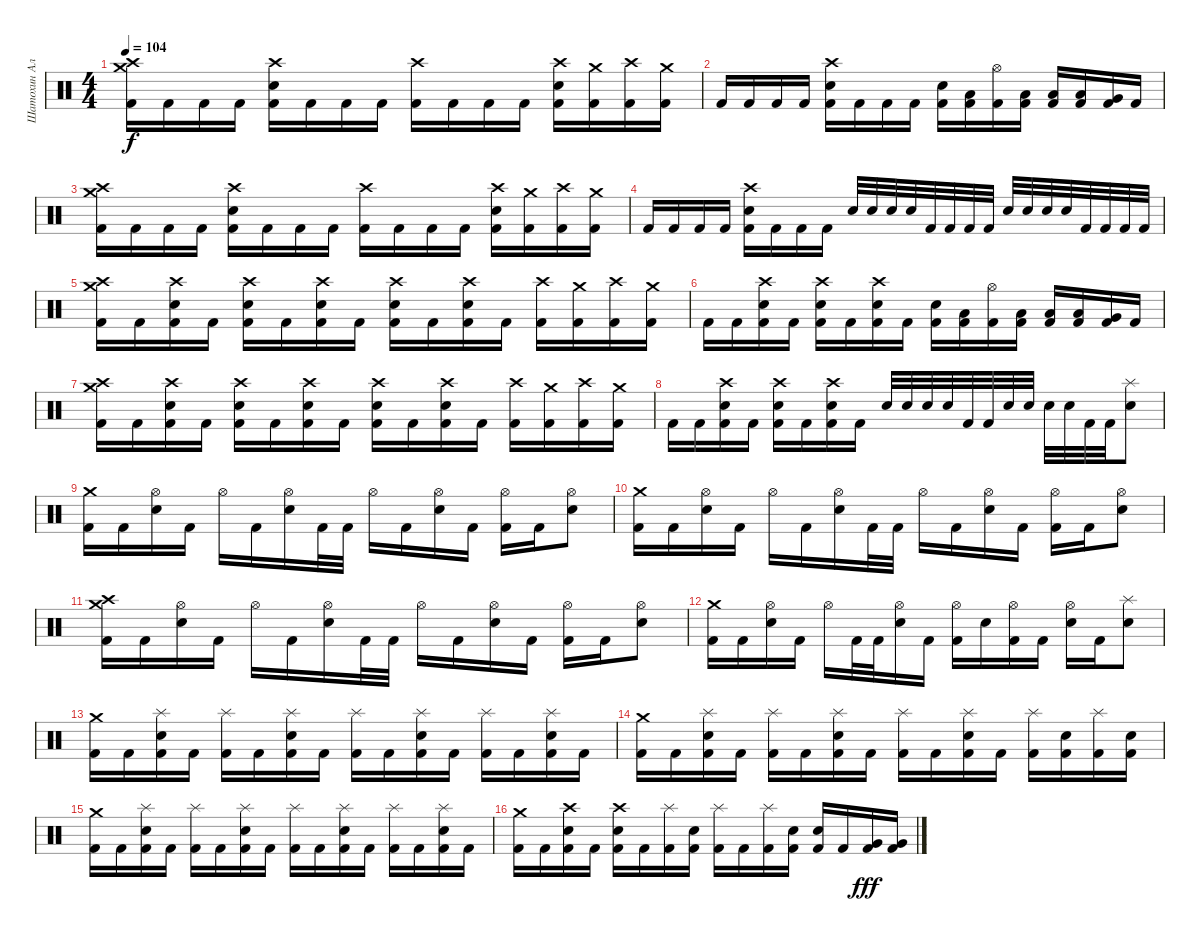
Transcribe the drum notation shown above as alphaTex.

\track ("Шатохин Алексей" "Шатохин Ал") {instrument percussion}
\staff {score}
\articulation defaults
\ts (4 4)
\tempo 104
\clef neutral
\ks c
("Crash high (hit)" "Crash medium (hit)" "Kick (hit) 2").16{dy f} "Kick (hit) 2".16 "Kick (hit) 2".16 "Kick (hit) 2".16 ("Crash high (hit)" "Electric Snare (hit)" "Kick (hit) 2").16 "Kick (hit) 2".16 "Kick (hit) 2".16 "Kick (hit) 2".16 ("Crash high (hit)" "Kick (hit) 2").16 "Kick (hit) 2".16 "Kick (hit) 2".16 "Kick (hit) 2".16 ("Crash high (hit)" "Electric Snare (hit)" "Kick (hit) 2").16 ("Crash medium (hit)" "Kick (hit) 2").16 ("Crash high (hit)" "Kick (hit) 2").16 ("Crash medium (hit)" "Kick (hit) 2").16 |
"Kick (hit) 2".16 "Kick (hit) 2".16 "Kick (hit) 2".16 "Kick (hit) 2".16 ("Crash high (hit)" "Electric Snare (hit)" "Kick (hit) 2").16 "Kick (hit) 2".16 "Kick (hit) 2".16 "Kick (hit) 2".16 ("Electric Snare (hit)" "Kick (hit) 2").16 ("Low Floor Tom (hit)" "Kick (hit) 2").16 ("Hi-Hat (open)" "Kick (hit) 2").16 ("Low Floor Tom (hit)" "Kick (hit) 2").16 ("Low Tom (hit)" "Kick (hit) 2").16 ("Low Floor Tom (hit)" "Kick (hit) 2").16 ("Very Low Tom (hit)" "Kick (hit) 2").16 "Kick (hit) 2".16 |
("Crash high (hit)" "Crash medium (hit)" "Kick (hit) 2").16 "Kick (hit) 2".16 "Kick (hit) 2".16 "Kick (hit) 2".16 ("Crash high (hit)" "Electric Snare (hit)" "Kick (hit) 2").16 "Kick (hit) 2".16 "Kick (hit) 2".16 "Kick (hit) 2".16 ("Crash high (hit)" "Kick (hit) 2").16 "Kick (hit) 2".16 "Kick (hit) 2".16 "Kick (hit) 2".16 ("Crash high (hit)" "Electric Snare (hit)" "Kick (hit) 2").16 ("Crash medium (hit)" "Kick (hit) 2").16 ("Crash high (hit)" "Kick (hit) 2").16 ("Crash medium (hit)" "Kick (hit) 2").16 |
"Kick (hit) 2".16 "Kick (hit) 2".16 "Kick (hit) 2".16 "Kick (hit) 2".16 ("Crash high (hit)" "Electric Snare (hit)" "Kick (hit) 2").16 "Kick (hit) 2".16 "Kick (hit) 2".16 "Kick (hit) 2".16 "Electric Snare (hit)".32 "Electric Snare (hit)".32 "Electric Snare (hit)".32 "Electric Snare (hit)".32 "Kick (hit) 2".32 "Kick (hit) 2".32 "Kick (hit) 2".32 "Kick (hit) 2".32 "Electric Snare (hit)".32 "Electric Snare (hit)".32 "Electric Snare (hit)".32 "Electric Snare (hit)".32 "Kick (hit) 2".32 "Kick (hit) 2".32 "Kick (hit) 2".32 "Kick (hit) 2".32 |
("Crash high (hit)" "Crash medium (hit)" "Kick (hit) 2").16 "Kick (hit) 2".16 ("Crash high (hit)" "Electric Snare (hit)" "Kick (hit) 2").16 "Kick (hit) 2".16 ("Crash high (hit)" "Electric Snare (hit)" "Kick (hit) 2").16 "Kick (hit) 2".16 ("Crash high (hit)" "Electric Snare (hit)" "Kick (hit) 2").16 "Kick (hit) 2".16 ("Crash high (hit)" "Electric Snare (hit)" "Kick (hit) 2").16 "Kick (hit) 2".16 ("Crash high (hit)" "Electric Snare (hit)" "Kick (hit) 2").16 "Kick (hit) 2".16 ("Crash high (hit)" "Kick (hit) 2").16 ("Crash medium (hit)" "Kick (hit) 2").16 ("Crash high (hit)" "Kick (hit) 2").16 ("Crash medium (hit)" "Kick (hit) 2").16 |
"Kick (hit) 2".16 "Kick (hit) 2".16 ("Crash high (hit)" "Electric Snare (hit)" "Kick (hit) 2").16 "Kick (hit) 2".16 ("Crash high (hit)" "Electric Snare (hit)" "Kick (hit) 2").16 "Kick (hit) 2".16 ("Crash high (hit)" "Electric Snare (hit)" "Kick (hit) 2").16 "Kick (hit) 2".16 ("Electric Snare (hit)" "Kick (hit) 2").16 ("Low Floor Tom (hit)" "Kick (hit) 2").16 ("Hi-Hat (open)" "Kick (hit) 2").16 ("Low Floor Tom (hit)" "Kick (hit) 2").16 ("Low Tom (hit)" "Kick (hit) 2").16 ("Low Floor Tom (hit)" "Kick (hit) 2").16 ("Very Low Tom (hit)" "Kick (hit) 2").16 "Kick (hit) 2".16 |
("Crash high (hit)" "Crash medium (hit)" "Kick (hit) 2").16 "Kick (hit) 2".16 ("Crash high (hit)" "Electric Snare (hit)" "Kick (hit) 2").16 "Kick (hit) 2".16 ("Crash high (hit)" "Electric Snare (hit)" "Kick (hit) 2").16 "Kick (hit) 2".16 ("Crash high (hit)" "Electric Snare (hit)" "Kick (hit) 2").16 "Kick (hit) 2".16 ("Crash high (hit)" "Electric Snare (hit)" "Kick (hit) 2").16 "Kick (hit) 2".16 ("Crash high (hit)" "Electric Snare (hit)" "Kick (hit) 2").16 "Kick (hit) 2".16 ("Crash high (hit)" "Kick (hit) 2").16 ("Crash medium (hit)" "Kick (hit) 2").16 ("Crash high (hit)" "Kick (hit) 2").16 ("Crash medium (hit)" "Kick (hit) 2").16 |
"Kick (hit) 2".16 "Kick (hit) 2".16 ("Crash high (hit)" "Electric Snare (hit)" "Kick (hit) 2").16 "Kick (hit) 2".16 ("Crash high (hit)" "Electric Snare (hit)" "Kick (hit) 2").16 "Kick (hit) 2".16 ("Crash high (hit)" "Electric Snare (hit)" "Kick (hit) 2").16 "Kick (hit) 2".16 "Electric Snare (hit)".32 "Electric Snare (hit)".32 "Electric Snare (hit)".32 "Electric Snare (hit)".32 "Kick (hit) 2".32 "Kick (hit) 2".32 "Electric Snare (hit)".32 "Electric Snare (hit)".32 "Electric Snare (hit)".32 "Electric Snare (hit)".32 "Kick (hit) 2".32 "Kick (hit) 2".32 ("Splash (hit)" "Electric Snare (hit)").8 |
("Crash medium (hit)" "Kick (hit) 2").16 "Kick (hit) 2".16 ("Hi-Hat (open)" "Electric Snare (hit)").16 "Kick (hit) 2".16 "Hi-Hat (open)".16 "Kick (hit) 2".16 ("Hi-Hat (open)" "Electric Snare (hit)").16 "Kick (hit) 2".32 "Kick (hit) 2".32 "Hi-Hat (open)".16 "Kick (hit) 2".16 ("Hi-Hat (open)" "Electric Snare (hit)").16 "Kick (hit) 2".16 ("Hi-Hat (open)" "Kick (hit) 2").16 "Kick (hit) 2".16 ("Hi-Hat (open)" "Electric Snare (hit)").8 |
("Crash medium (hit)" "Kick (hit) 2").16 "Kick (hit) 2".16 ("Hi-Hat (open)" "Electric Snare (hit)").16 "Kick (hit) 2".16 "Hi-Hat (open)".16 "Kick (hit) 2".16 ("Hi-Hat (open)" "Electric Snare (hit)").16 "Kick (hit) 2".32 "Kick (hit) 2".32 "Hi-Hat (open)".16 "Kick (hit) 2".16 ("Hi-Hat (open)" "Electric Snare (hit)").16 "Kick (hit) 2".16 ("Hi-Hat (open)" "Kick (hit) 2").16 "Kick (hit) 2".16 ("Hi-Hat (open)" "Electric Snare (hit)").8 |
("Crash medium (hit)" "Crash high (hit)" "Kick (hit) 2").16 "Kick (hit) 2".16 ("Hi-Hat (open)" "Electric Snare (hit)").16 "Kick (hit) 2".16 "Hi-Hat (open)".16 "Kick (hit) 2".16 ("Hi-Hat (open)" "Electric Snare (hit)").16 "Kick (hit) 2".32 "Kick (hit) 2".32 "Hi-Hat (open)".16 "Kick (hit) 2".16 ("Hi-Hat (open)" "Electric Snare (hit)").16 "Kick (hit) 2".16 ("Hi-Hat (open)" "Kick (hit) 2").16 "Kick (hit) 2".16 ("Hi-Hat (open)" "Electric Snare (hit)").8 |
("Crash medium (hit)" "Kick (hit) 2").16 "Kick (hit) 2".16 ("Hi-Hat (open)" "Electric Snare (hit)").16 "Kick (hit) 2".16 "Hi-Hat (open)".16 "Kick (hit) 2".32 "Kick (hit) 2".32 ("Hi-Hat (open)" "Electric Snare (hit)").16 "Kick (hit) 2".16 ("Hi-Hat (open)" "Kick (hit) 2").16 "Electric Snare (hit)".16 ("Hi-Hat (open)" "Kick (hit) 2").16 "Kick (hit) 2".16 ("Hi-Hat (open)" "Electric Snare (hit)").16 "Kick (hit) 2".16 ("Splash (hit)" "Electric Snare (hit)").8 |
("Crash medium (hit)" "Kick (hit) 2").16 "Kick (hit) 2".16 ("Splash (hit)" "Electric Snare (hit)" "Kick (hit) 2").16 "Kick (hit) 2".16 ("Splash (hit)" "Kick (hit) 2").16 "Kick (hit) 2".16 ("Splash (hit)" "Electric Snare (hit)" "Kick (hit) 2").16 "Kick (hit) 2".16 ("Splash (hit)" "Kick (hit) 2").16 "Kick (hit) 2".16 ("Splash (hit)" "Electric Snare (hit)" "Kick (hit) 2").16 "Kick (hit) 2".16 ("Splash (hit)" "Kick (hit) 2").16 "Kick (hit) 2".16 ("Splash (hit)" "Electric Snare (hit)" "Kick (hit) 2").16 "Kick (hit) 2".16 |
("Crash medium (hit)" "Kick (hit) 2").16 "Kick (hit) 2".16 ("Splash (hit)" "Electric Snare (hit)" "Kick (hit) 2").16 "Kick (hit) 2".16 ("Splash (hit)" "Kick (hit) 2").16 "Kick (hit) 2".16 ("Splash (hit)" "Electric Snare (hit)" "Kick (hit) 2").16 "Kick (hit) 2".16 ("Splash (hit)" "Kick (hit) 2").16 "Kick (hit) 2".16 ("Splash (hit)" "Electric Snare (hit)" "Kick (hit) 2").16 "Kick (hit) 2".16 ("Splash (hit)" "Kick (hit) 2").16 ("Electric Snare (hit)" "Kick (hit) 2").16 ("Splash (hit)" "Kick (hit) 2").16 ("Electric Snare (hit)" "Kick (hit) 2").16 |
("Crash medium (hit)" "Kick (hit) 2").16 "Kick (hit) 2".16 ("Splash (hit)" "Electric Snare (hit)" "Kick (hit) 2").16 "Kick (hit) 2".16 ("Splash (hit)" "Kick (hit) 2").16 "Kick (hit) 2".16 ("Splash (hit)" "Electric Snare (hit)" "Kick (hit) 2").16 "Kick (hit) 2".16 ("Splash (hit)" "Kick (hit) 2").16 "Kick (hit) 2".16 ("Splash (hit)" "Electric Snare (hit)" "Kick (hit) 2").16 "Kick (hit) 2".16 ("Splash (hit)" "Kick (hit) 2").16 "Kick (hit) 2".16 ("Splash (hit)" "Electric Snare (hit)" "Kick (hit) 2").16 "Kick (hit) 2".16 |
("Crash medium (hit)" "Kick (hit) 2").16 "Kick (hit) 2".16 ("Crash high (hit)" "Electric Snare (hit)" "Kick (hit) 2").16 "Kick (hit) 2".16 ("Crash high (hit)" "Electric Snare (hit)" "Kick (hit) 2").16 "Kick (hit) 2".16 ("Splash (hit)" "Kick (hit) 2").16 ("Electric Snare (hit)" "Kick (hit) 2").16 ("Splash (hit)" "Kick (hit) 2").16 "Kick (hit) 2".16 ("Splash (hit)" "Kick (hit) 2").16 ("Electric Snare (hit)" "Kick (hit) 2").16 ("Electric Snare (hit)" "Kick (hit) 2").16 "Kick (hit) 2".16 ("Very Low Tom (hit)" "Kick (hit) 2").16{dy fff} ("Very Low Tom (hit)" "Kick (hit) 2").16
